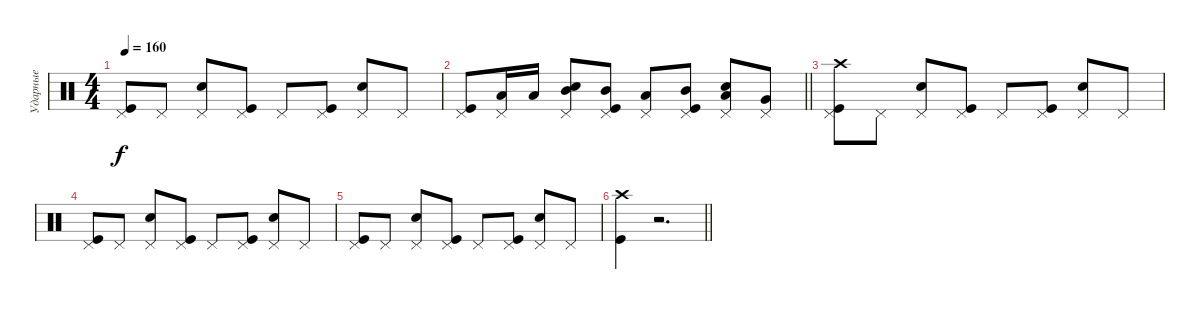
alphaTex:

\track ("Ударные" "Ударные") {instrument percussion}
\staff {score}
\articulation defaults
\ts (4 4)
\tempo 160
\clef neutral
\ks c
("Pedal Hi-Hat (hit)" "Kick (hit)").8{dy f} "Pedal Hi-Hat (hit)".8 ("Pedal Hi-Hat (hit)" "Snare (hit) 2").8 ("Pedal Hi-Hat (hit)" "Kick (hit)").8 "Pedal Hi-Hat (hit)".8 ("Pedal Hi-Hat (hit)" "Kick (hit)").8 ("Pedal Hi-Hat (hit)" "Snare (hit) 2").8 "Pedal Hi-Hat (hit)".8 |
\barLineRight lightlight
("Pedal Hi-Hat (hit)" "Kick (hit)").8 ("Pedal Hi-Hat (hit)" "Low Tom (hit)").16 "Low Tom (hit)".16 ("Pedal Hi-Hat (hit)" "Mid Tom (hit)" "Snare (hit) 2").8 ("Pedal Hi-Hat (hit)" "Mid Tom (hit)" "Kick (hit)").8 ("Pedal Hi-Hat (hit)" "Low Tom (hit)").8 ("Pedal Hi-Hat (hit)" "Mid Tom (hit)" "Kick (hit)").8 ("Pedal Hi-Hat (hit)" "Low Tom (hit)" "Snare (hit) 2").8 ("Pedal Hi-Hat (hit)" "Very Low Tom (hit)").8 |
("Pedal Hi-Hat (hit)" "Crash high (hit)" "Kick (hit)").8 "Pedal Hi-Hat (hit)".8 ("Pedal Hi-Hat (hit)" "Snare (hit) 2").8 ("Pedal Hi-Hat (hit)" "Kick (hit)").8 "Pedal Hi-Hat (hit)".8 ("Pedal Hi-Hat (hit)" "Kick (hit)").8 ("Pedal Hi-Hat (hit)" "Snare (hit) 2").8 "Pedal Hi-Hat (hit)".8 |
("Pedal Hi-Hat (hit)" "Kick (hit)").8 "Pedal Hi-Hat (hit)".8 ("Pedal Hi-Hat (hit)" "Snare (hit) 2").8 ("Pedal Hi-Hat (hit)" "Kick (hit)").8 "Pedal Hi-Hat (hit)".8 ("Pedal Hi-Hat (hit)" "Kick (hit)").8 ("Pedal Hi-Hat (hit)" "Snare (hit) 2").8 "Pedal Hi-Hat (hit)".8 |
("Pedal Hi-Hat (hit)" "Kick (hit)").8 "Pedal Hi-Hat (hit)".8 ("Pedal Hi-Hat (hit)" "Snare (hit) 2").8 ("Pedal Hi-Hat (hit)" "Kick (hit)").8 "Pedal Hi-Hat (hit)".8 ("Pedal Hi-Hat (hit)" "Kick (hit)").8 ("Pedal Hi-Hat (hit)" "Snare (hit) 2").8 "Pedal Hi-Hat (hit)".8 |
\barLineRight lightlight
("Crash high (hit)" "Kick (hit)").4 r.2{d}
